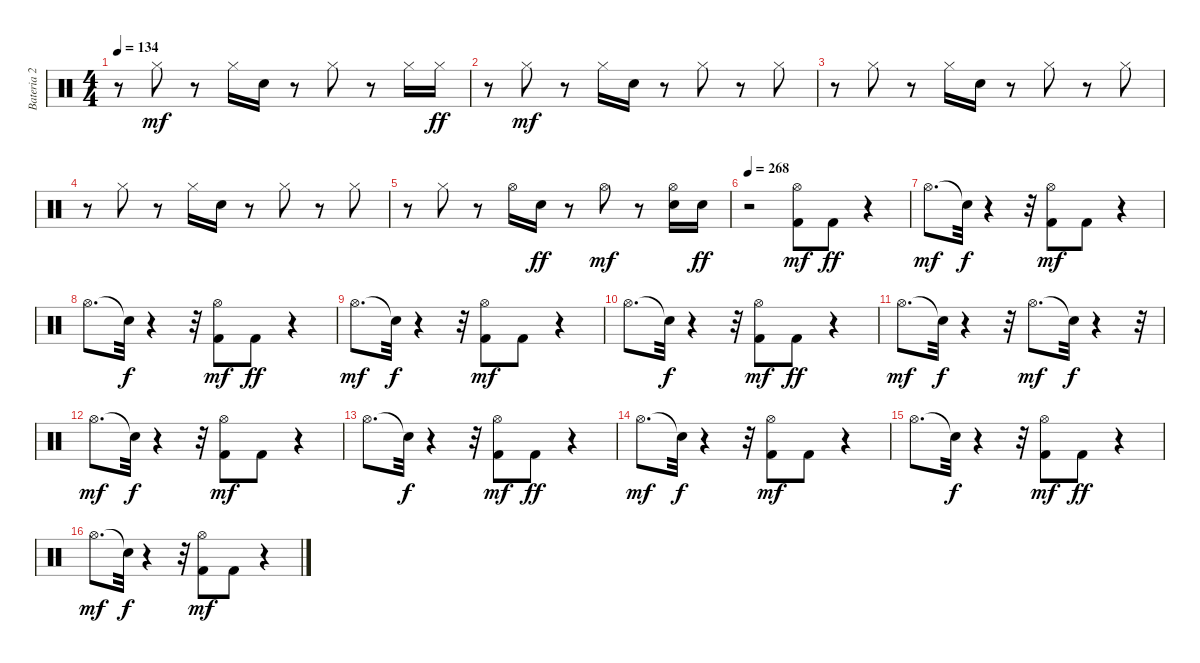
\track ("Bateria 2" "Bateria 2") {instrument percussion}
\staff {score}
\articulation defaults
\ts (4 4)
\tempo 134
\clef neutral
\ks c
r.8{dy mf} "Hi-Hat (closed)".8 r.8 "Hi-Hat (closed)".16 "Electric Snare (hit)".16 r.8 "Hi-Hat (closed)".8 r.8 "Hi-Hat (closed)".16 "Hi-Hat (closed)".16{dy ff} |
r.8 "Hi-Hat (closed)".8{dy mf} r.8 "Hi-Hat (closed)".16 "Electric Snare (hit)".16 r.8 "Hi-Hat (closed)".8 r.8 "Hi-Hat (closed)".8 |
r.8 "Hi-Hat (closed)".8 r.8 "Hi-Hat (closed)".16 "Electric Snare (hit)".16 r.8 "Hi-Hat (closed)".8 r.8 "Hi-Hat (closed)".8 |
r.8 "Hi-Hat (closed)".8 r.8 "Hi-Hat (closed)".16 "Electric Snare (hit)".16 r.8 "Hi-Hat (closed)".8 r.8 "Hi-Hat (closed)".8 |
r.8 "Hi-Hat (closed)".8 r.8 "Hi-Hat (open)".16 "Electric Snare (hit)".16{dy ff} r.8 "Hi-Hat (open)".8{dy mf} r.8 ("Electric Snare (hit)" "Hi-Hat (open)").16 "Electric Snare (hit)".16{dy ff} |
\tempo 268
r.2 ("Kick (hit) 2" "Hi-Hat (open)").8{dy mf} "Kick (hit) 2".8{dy ff} r.4 |
"Hi-Hat (open)".8{d dy mf} "Snare (hit)"{t}.32{dy f} r.4 r.32 ("Kick (hit) 2" "Hi-Hat (open)").8{dy mf} "Kick (hit) 2".8 r.4 |
"Hi-Hat (open)".8{d} "Snare (hit)"{t}.32{dy f} r.4 r.32 ("Kick (hit) 2" "Hi-Hat (open)").8{dy mf} "Kick (hit) 2".8{dy ff} r.4 |
"Hi-Hat (open)".8{d dy mf} "Snare (hit)"{t}.32{dy f} r.4 r.32 ("Kick (hit) 2" "Hi-Hat (open)").8{dy mf} "Kick (hit) 2".8 r.4 |
"Hi-Hat (open)".8{d} "Snare (hit)"{t}.32{dy f} r.4 r.32 ("Kick (hit) 2" "Hi-Hat (open)").8{dy mf} "Kick (hit) 2".8{dy ff} r.4 |
"Hi-Hat (open)".8{d dy mf} "Snare (hit)"{t}.32{dy f} r.4 r.32 "Hi-Hat (open)".8{d dy mf} "Snare (hit)"{t}.32{dy f} r.4 r.32 |
"Hi-Hat (open)".8{d dy mf} "Snare (hit)"{t}.32{dy f} r.4 r.32 ("Kick (hit) 2" "Hi-Hat (open)").8{dy mf} "Kick (hit) 2".8 r.4 |
"Hi-Hat (open)".8{d} "Snare (hit)"{t}.32{dy f} r.4 r.32 ("Kick (hit) 2" "Hi-Hat (open)").8{dy mf} "Kick (hit) 2".8{dy ff} r.4 |
"Hi-Hat (open)".8{d dy mf} "Snare (hit)"{t}.32{dy f} r.4 r.32 ("Kick (hit) 2" "Hi-Hat (open)").8{dy mf} "Kick (hit) 2".8 r.4 |
"Hi-Hat (open)".8{d} "Snare (hit)"{t}.32{dy f} r.4 r.32 ("Kick (hit) 2" "Hi-Hat (open)").8{dy mf} "Kick (hit) 2".8{dy ff} r.4 |
"Hi-Hat (open)".8{d dy mf} "Snare (hit)"{t}.32{dy f} r.4 r.32 ("Kick (hit) 2" "Hi-Hat (open)").8{dy mf} "Kick (hit) 2".8 r.4
